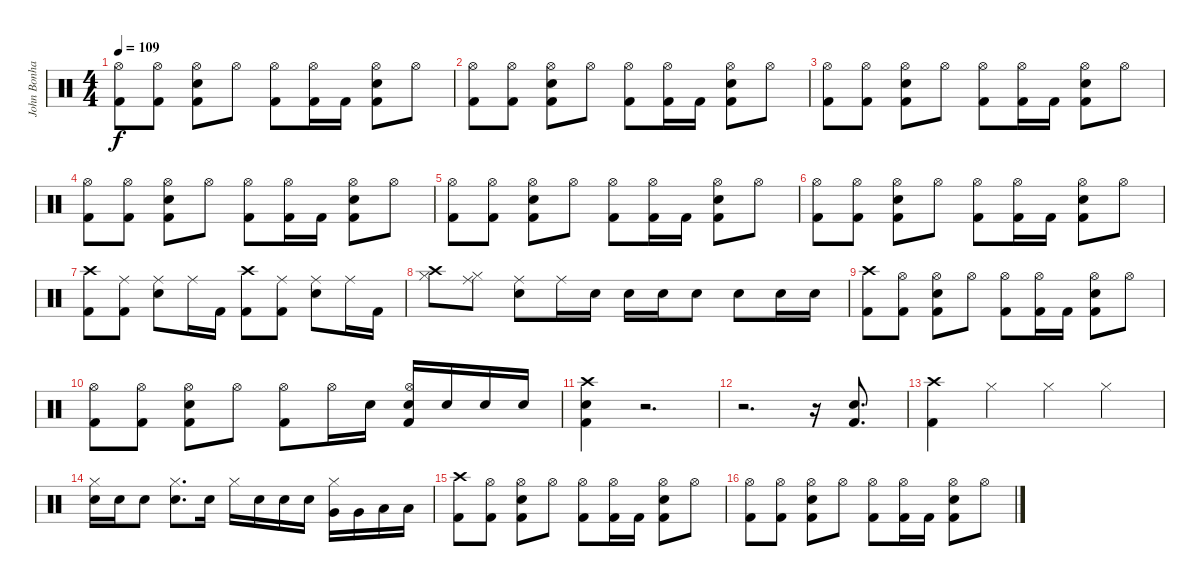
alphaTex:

\track ("John Bonham" "John Bonha") {instrument percussion}
\staff {score}
\articulation defaults
\ts (4 4)
\tempo 109
\clef neutral
\ks c
("Kick (hit) 2" "Hi-Hat (open)").8{dy f} ("Kick (hit) 2" "Hi-Hat (open)").8 ("Kick (hit) 2" "Snare (hit) 2" "Hi-Hat (open)").8 "Hi-Hat (open)".8 ("Kick (hit) 2" "Hi-Hat (open)").8 ("Kick (hit) 2" "Hi-Hat (open)").16 "Kick (hit) 2".16 ("Kick (hit) 2" "Electric Snare (hit)" "Hi-Hat (open)").8 "Hi-Hat (open)".8 |
("Kick (hit) 2" "Hi-Hat (open)").8 ("Kick (hit) 2" "Hi-Hat (open)").8 ("Kick (hit) 2" "Snare (hit) 2" "Hi-Hat (open)").8 "Hi-Hat (open)".8 ("Kick (hit) 2" "Hi-Hat (open)").8 ("Kick (hit) 2" "Hi-Hat (open)").16 "Kick (hit) 2".16 ("Kick (hit) 2" "Electric Snare (hit)" "Hi-Hat (open)").8 "Hi-Hat (open)".8 |
("Kick (hit) 2" "Hi-Hat (open)").8 ("Kick (hit) 2" "Hi-Hat (open)").8 ("Kick (hit) 2" "Snare (hit) 2" "Hi-Hat (open)").8 "Hi-Hat (open)".8 ("Kick (hit) 2" "Hi-Hat (open)").8 ("Kick (hit) 2" "Hi-Hat (open)").16 "Kick (hit) 2".16 ("Kick (hit) 2" "Electric Snare (hit)" "Hi-Hat (open)").8 "Hi-Hat (open)".8 |
("Kick (hit) 2" "Hi-Hat (open)").8 ("Kick (hit) 2" "Hi-Hat (open)").8 ("Kick (hit) 2" "Snare (hit) 2" "Hi-Hat (open)").8 "Hi-Hat (open)".8 ("Kick (hit) 2" "Hi-Hat (open)").8 ("Kick (hit) 2" "Hi-Hat (open)").16 "Kick (hit) 2".16 ("Kick (hit) 2" "Electric Snare (hit)" "Hi-Hat (open)").8 "Hi-Hat (open)".8 |
("Kick (hit) 2" "Hi-Hat (open)").8 ("Kick (hit) 2" "Hi-Hat (open)").8 ("Kick (hit) 2" "Snare (hit) 2" "Hi-Hat (open)").8 "Hi-Hat (open)".8 ("Kick (hit) 2" "Hi-Hat (open)").8 ("Kick (hit) 2" "Hi-Hat (open)").16 "Kick (hit) 2".16 ("Kick (hit) 2" "Electric Snare (hit)" "Hi-Hat (open)").8 "Hi-Hat (open)".8 |
("Kick (hit) 2" "Hi-Hat (open)").8 ("Kick (hit) 2" "Hi-Hat (open)").8 ("Kick (hit) 2" "Snare (hit) 2" "Hi-Hat (open)").8 "Hi-Hat (open)".8 ("Kick (hit) 2" "Hi-Hat (open)").8 ("Kick (hit) 2" "Hi-Hat (open)").16 "Kick (hit) 2".16 ("Kick (hit) 2" "Electric Snare (hit)" "Hi-Hat (open)").8 "Hi-Hat (open)".8 |
("Kick (hit) 2" "Crash high (hit)").8 ("Kick (hit) 2" "Ride (middle)").8 ("Snare (hit) 2" "Ride (middle)").8 "Ride (middle)".16 "Kick (hit) 2".16 ("Kick (hit) 2" "Crash high (hit)").8 ("Kick (hit) 2" "Ride (middle)").8 ("Snare (hit) 2" "Ride (middle)").8 "Ride (middle)".16 "Kick (hit) 2".16 |
("Hi-Hat (closed)" "Crash high (hit)").8 ("Hi-Hat (closed)" "Ride (middle)").8 ("Snare (hit) 2" "Ride (middle)").8 "Ride (middle)".16 "Snare (hit) 2".16 "Snare (hit) 2".16 "Snare (hit) 2".16 "Snare (hit) 2".8 "Snare (hit) 2".8 "Electric Snare (hit)".16 "Snare (hit) 2".16 |
("Kick (hit) 2" "Crash high (hit)").8 ("Kick (hit) 2" "Hi-Hat (open)").8 ("Electric Snare (hit)" "Kick (hit) 2" "Hi-Hat (open)").8 "Hi-Hat (open)".8 ("Kick (hit) 2" "Hi-Hat (open)").8 ("Kick (hit) 2" "Hi-Hat (open)").16 "Kick (hit) 2".16 ("Kick (hit) 2" "Snare (hit) 2" "Hi-Hat (open)").8 "Hi-Hat (open)".8 |
("Kick (hit) 2" "Hi-Hat (open)").8 ("Kick (hit) 2" "Hi-Hat (open)").8 ("Electric Snare (hit)" "Kick (hit) 2" "Hi-Hat (open)").8 "Hi-Hat (open)".8 ("Kick (hit) 2" "Hi-Hat (open)").8 "Hi-Hat (open)".16 "Snare (hit) 2".16 ("Kick (hit) 2" "Electric Snare (hit)" "Hi-Hat (open)").16 "Electric Snare (hit)".16 "Electric Snare (hit)".16 "Electric Snare (hit)".16 |
("Crash high (hit)" "Kick (hit) 2" "Electric Snare (hit)").4 r.2{d} |
r.2{d} r.16 ("Kick (hit) 2" "Electric Snare (hit)").8{d} |
("Kick (hit) 2" "Crash high (hit)").4 "Hi-Hat (closed)".4 "Hi-Hat (closed)".4 "Hi-Hat (closed)".4 |
("Electric Snare (hit)" "Hi-Hat (closed)").16 "Electric Snare (hit)".16 "Snare (hit) 2".8 ("Electric Snare (hit)" "Hi-Hat (closed)").8{d} "Snare (hit) 2".16 "Hi-Hat (closed)".16 "Electric Snare (hit)".16 "Electric Snare (hit)".16 "Electric Snare (hit)".16 ("Very Low Tom (hit)" "Hi-Hat (closed)").16 "Very Low Tom (hit)".16 "Low Floor Tom (hit)".16 "Low Floor Tom (hit)".16 |
("Kick (hit) 2" "Crash high (hit)").8 ("Kick (hit) 2" "Hi-Hat (open)").8 ("Electric Snare (hit)" "Kick (hit) 2" "Hi-Hat (open)").8 "Hi-Hat (open)".8 ("Kick (hit) 2" "Hi-Hat (open)").8 ("Kick (hit) 2" "Hi-Hat (open)").16 "Kick (hit) 2".16 ("Kick (hit) 2" "Snare (hit) 2" "Hi-Hat (open)").8 "Hi-Hat (open)".8 |
("Kick (hit) 2" "Hi-Hat (open)").8 ("Kick (hit) 2" "Hi-Hat (open)").8 ("Kick (hit) 2" "Snare (hit) 2" "Hi-Hat (open)").8 "Hi-Hat (open)".8 ("Kick (hit) 2" "Hi-Hat (open)").8 ("Kick (hit) 2" "Hi-Hat (open)").16 "Kick (hit) 2".16 ("Kick (hit) 2" "Electric Snare (hit)" "Hi-Hat (open)").8 "Hi-Hat (open)".8
